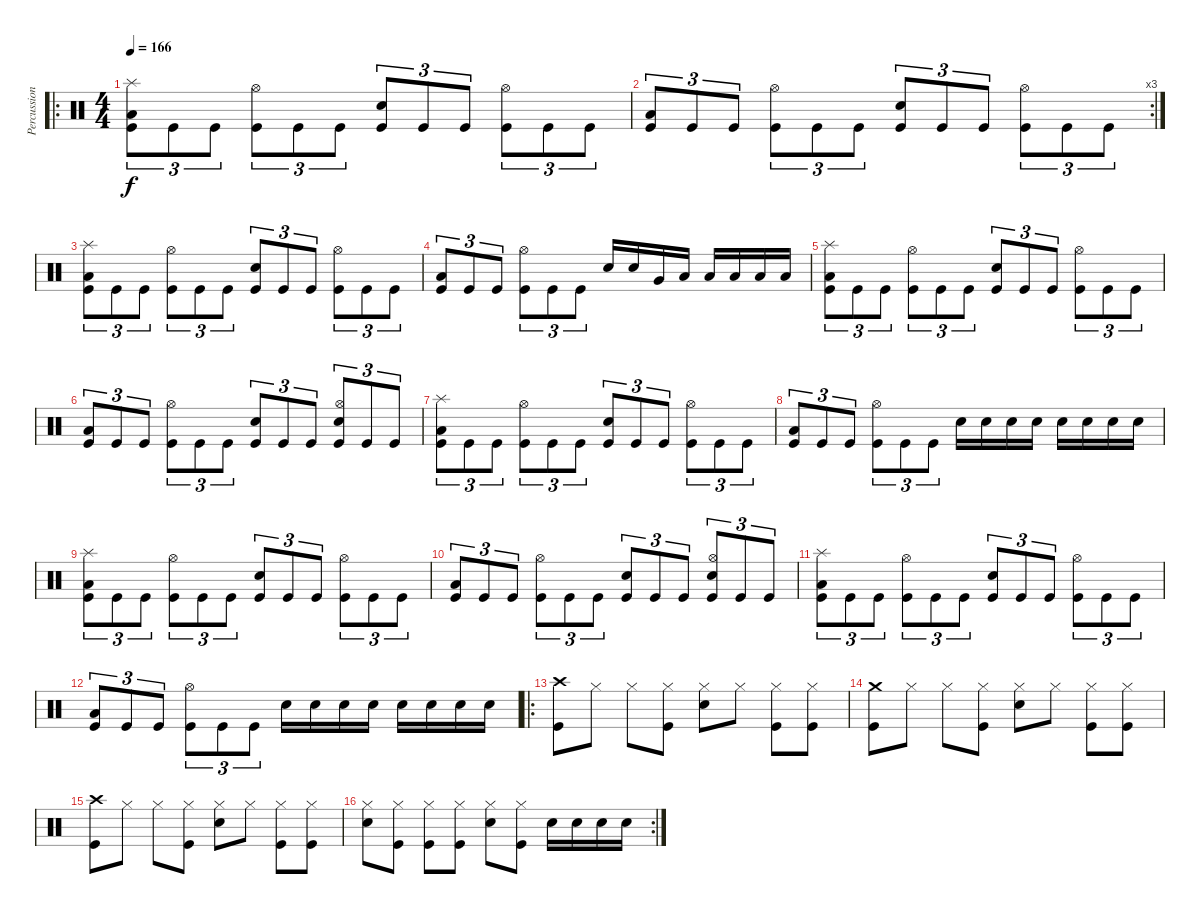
\track ("Percussions" "Percussion") {instrument percussion}
\staff {score}
\articulation defaults
\ro
\ts (4 4)
\tempo 166
\clef neutral
\ks c
("Splash (hit)" "Low Floor Tom (hit)" "Kick (hit)").8{tu (3 2) dy f} "Kick (hit)".8{tu (3 2)} "Kick (hit)".8{tu (3 2)} ("Hi-Hat (open)" "Kick (hit)").8{tu (3 2)} "Kick (hit)".8{tu (3 2)} "Kick (hit)".8{tu (3 2)} ("Snare (hit) 2" "Kick (hit)").8{tu (3 2)} "Kick (hit)".8{tu (3 2)} "Kick (hit)".8{tu (3 2)} ("Hi-Hat (open)" "Kick (hit)").8{tu (3 2)} "Kick (hit)".8{tu (3 2)} "Kick (hit)".8{tu (3 2)} |
\rc 3
("Low Floor Tom (hit)" "Kick (hit)").8{tu (3 2)} "Kick (hit)".8{tu (3 2)} "Kick (hit)".8{tu (3 2)} ("Hi-Hat (open)" "Kick (hit)").8{tu (3 2)} "Kick (hit)".8{tu (3 2)} "Kick (hit)".8{tu (3 2)} ("Snare (hit) 2" "Kick (hit)").8{tu (3 2)} "Kick (hit)".8{tu (3 2)} "Kick (hit)".8{tu (3 2)} ("Hi-Hat (open)" "Kick (hit)").8{tu (3 2)} "Kick (hit)".8{tu (3 2)} "Kick (hit)".8{tu (3 2)} |
("Splash (hit)" "Low Floor Tom (hit)" "Kick (hit)").8{tu (3 2)} "Kick (hit)".8{tu (3 2)} "Kick (hit)".8{tu (3 2)} ("Hi-Hat (open)" "Kick (hit)").8{tu (3 2)} "Kick (hit)".8{tu (3 2)} "Kick (hit)".8{tu (3 2)} ("Snare (hit) 2" "Kick (hit)").8{tu (3 2)} "Kick (hit)".8{tu (3 2)} "Kick (hit)".8{tu (3 2)} ("Hi-Hat (open)" "Kick (hit)").8{tu (3 2)} "Kick (hit)".8{tu (3 2)} "Kick (hit)".8{tu (3 2)} |
("Low Floor Tom (hit)" "Kick (hit)").8{tu (3 2)} "Kick (hit)".8{tu (3 2)} "Kick (hit)".8{tu (3 2)} ("Hi-Hat (open)" "Kick (hit)").8{tu (3 2)} "Kick (hit)".8{tu (3 2)} "Kick (hit)".8{tu (3 2)} "Snare (hit) 2".16 "Snare (hit) 2".16 "Very Low Tom (hit)".16 "Low Floor Tom (hit)".16 "Low Floor Tom (hit)".16 "Low Floor Tom (hit)".16 "Low Floor Tom (hit)".16 "Low Floor Tom (hit)".16 |
("Splash (hit)" "Low Floor Tom (hit)" "Kick (hit)").8{tu (3 2)} "Kick (hit)".8{tu (3 2)} "Kick (hit)".8{tu (3 2)} ("Hi-Hat (open)" "Kick (hit)").8{tu (3 2)} "Kick (hit)".8{tu (3 2)} "Kick (hit)".8{tu (3 2)} ("Snare (hit) 2" "Kick (hit)").8{tu (3 2)} "Kick (hit)".8{tu (3 2)} "Kick (hit)".8{tu (3 2)} ("Hi-Hat (open)" "Kick (hit)").8{tu (3 2)} "Kick (hit)".8{tu (3 2)} "Kick (hit)".8{tu (3 2)} |
("Low Floor Tom (hit)" "Kick (hit)").8{tu (3 2)} "Kick (hit)".8{tu (3 2)} "Kick (hit)".8{tu (3 2)} ("Hi-Hat (open)" "Kick (hit)").8{tu (3 2)} "Kick (hit)".8{tu (3 2)} "Kick (hit)".8{tu (3 2)} ("Snare (hit) 2" "Kick (hit)").8{tu (3 2)} "Kick (hit)".8{tu (3 2)} "Kick (hit)".8{tu (3 2)} ("Hi-Hat (open)" "Snare (hit) 2" "Kick (hit)").8{tu (3 2)} "Kick (hit)".8{tu (3 2)} "Kick (hit)".8{tu (3 2)} |
("Splash (hit)" "Low Floor Tom (hit)" "Kick (hit)").8{tu (3 2)} "Kick (hit)".8{tu (3 2)} "Kick (hit)".8{tu (3 2)} ("Hi-Hat (open)" "Kick (hit)").8{tu (3 2)} "Kick (hit)".8{tu (3 2)} "Kick (hit)".8{tu (3 2)} ("Snare (hit) 2" "Kick (hit)").8{tu (3 2)} "Kick (hit)".8{tu (3 2)} "Kick (hit)".8{tu (3 2)} ("Hi-Hat (open)" "Kick (hit)").8{tu (3 2)} "Kick (hit)".8{tu (3 2)} "Kick (hit)".8{tu (3 2)} |
("Low Floor Tom (hit)" "Kick (hit)").8{tu (3 2)} "Kick (hit)".8{tu (3 2)} "Kick (hit)".8{tu (3 2)} ("Hi-Hat (open)" "Kick (hit)").8{tu (3 2)} "Kick (hit)".8{tu (3 2)} "Kick (hit)".8{tu (3 2)} "Snare (hit) 2".16 "Snare (hit) 2".16 "Snare (hit) 2".16 "Snare (hit) 2".16 "Snare (hit) 2".16 "Snare (hit) 2".16 "Snare (hit) 2".16 "Snare (hit) 2".16 |
("Splash (hit)" "Low Floor Tom (hit)" "Kick (hit)").8{tu (3 2)} "Kick (hit)".8{tu (3 2)} "Kick (hit)".8{tu (3 2)} ("Hi-Hat (open)" "Kick (hit)").8{tu (3 2)} "Kick (hit)".8{tu (3 2)} "Kick (hit)".8{tu (3 2)} ("Snare (hit) 2" "Kick (hit)").8{tu (3 2)} "Kick (hit)".8{tu (3 2)} "Kick (hit)".8{tu (3 2)} ("Hi-Hat (open)" "Kick (hit)").8{tu (3 2)} "Kick (hit)".8{tu (3 2)} "Kick (hit)".8{tu (3 2)} |
("Low Floor Tom (hit)" "Kick (hit)").8{tu (3 2)} "Kick (hit)".8{tu (3 2)} "Kick (hit)".8{tu (3 2)} ("Hi-Hat (open)" "Kick (hit)").8{tu (3 2)} "Kick (hit)".8{tu (3 2)} "Kick (hit)".8{tu (3 2)} ("Snare (hit) 2" "Kick (hit)").8{tu (3 2)} "Kick (hit)".8{tu (3 2)} "Kick (hit)".8{tu (3 2)} ("Hi-Hat (open)" "Snare (hit) 2" "Kick (hit)").8{tu (3 2)} "Kick (hit)".8{tu (3 2)} "Kick (hit)".8{tu (3 2)} |
("Splash (hit)" "Low Floor Tom (hit)" "Kick (hit)").8{tu (3 2)} "Kick (hit)".8{tu (3 2)} "Kick (hit)".8{tu (3 2)} ("Hi-Hat (open)" "Kick (hit)").8{tu (3 2)} "Kick (hit)".8{tu (3 2)} "Kick (hit)".8{tu (3 2)} ("Snare (hit) 2" "Kick (hit)").8{tu (3 2)} "Kick (hit)".8{tu (3 2)} "Kick (hit)".8{tu (3 2)} ("Hi-Hat (open)" "Kick (hit)").8{tu (3 2)} "Kick (hit)".8{tu (3 2)} "Kick (hit)".8{tu (3 2)} |
("Low Floor Tom (hit)" "Kick (hit)").8{tu (3 2)} "Kick (hit)".8{tu (3 2)} "Kick (hit)".8{tu (3 2)} ("Hi-Hat (open)" "Kick (hit)").8{tu (3 2)} "Kick (hit)".8{tu (3 2)} "Kick (hit)".8{tu (3 2)} "Snare (hit) 2".16 "Snare (hit) 2".16 "Snare (hit) 2".16 "Snare (hit) 2".16 "Snare (hit) 2".16 "Snare (hit) 2".16 "Snare (hit) 2".16 "Snare (hit) 2".16 |
\ro
("Crash high (hit)" "Kick (hit)").8 "Hi-Hat (closed)".8 "Hi-Hat (closed)".8 ("Hi-Hat (closed)" "Kick (hit)").8 ("Hi-Hat (closed)" "Snare (hit) 2").8 "Hi-Hat (closed)".8 ("Hi-Hat (closed)" "Kick (hit)").8 ("Hi-Hat (closed)" "Kick (hit)").8 |
("Crash medium (hit)" "Kick (hit)").8 "Hi-Hat (closed)".8 "Hi-Hat (closed)".8 ("Hi-Hat (closed)" "Kick (hit)").8 ("Hi-Hat (closed)" "Snare (hit) 2").8 "Hi-Hat (closed)".8 ("Hi-Hat (closed)" "Kick (hit)").8 ("Hi-Hat (closed)" "Kick (hit)").8 |
("Crash high (hit)" "Kick (hit)").8 "Hi-Hat (closed)".8 "Hi-Hat (closed)".8 ("Hi-Hat (closed)" "Kick (hit)").8 ("Hi-Hat (closed)" "Snare (hit) 2").8 "Hi-Hat (closed)".8 ("Hi-Hat (closed)" "Kick (hit)").8 ("Hi-Hat (closed)" "Kick (hit)").8 |
\rc 2
("Hi-Hat (closed)" "Snare (hit) 2").8 ("Hi-Hat (closed)" "Kick (hit)").8 ("Hi-Hat (closed)" "Kick (hit)").8 ("Hi-Hat (closed)" "Kick (hit)").8 ("Hi-Hat (closed)" "Snare (hit) 2").8 ("Hi-Hat (closed)" "Kick (hit)").8 "Snare (hit) 2".16 "Snare (hit) 2".16 "Snare (hit) 2".16 "Snare (hit) 2".16
